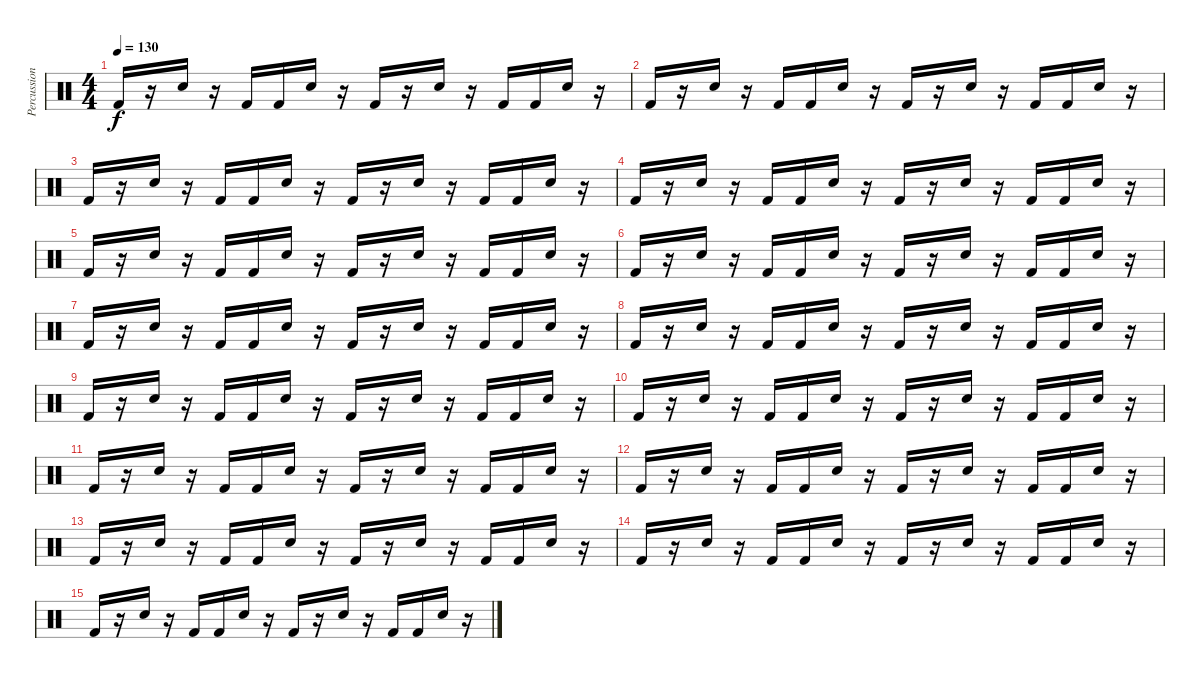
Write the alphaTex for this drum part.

\track ("Percussion" "Percussion") {instrument percussion}
\staff {score}
\articulation defaults
\ts (4 4)
\tempo 130
\clef neutral
\ks c "Kick (hit) 2".16{dy f}
r.16 "Snare (hit) 2".16 r.16 "Kick (hit) 2".16 "Kick (hit) 2".16 "Snare (hit) 2".16 r.16 "Kick (hit) 2".16 r.16 "Snare (hit) 2".16 r.16 "Kick (hit) 2".16 "Kick (hit) 2".16 "Snare (hit) 2".16 r.16 |
"Kick (hit) 2".16 r.16 "Snare (hit) 2".16 r.16 "Kick (hit) 2".16 "Kick (hit) 2".16 "Snare (hit) 2".16 r.16 "Kick (hit) 2".16 r.16 "Snare (hit) 2".16 r.16 "Kick (hit) 2".16 "Kick (hit) 2".16 "Snare (hit) 2".16 r.16 |
"Kick (hit) 2".16 r.16 "Snare (hit) 2".16 r.16 "Kick (hit) 2".16 "Kick (hit) 2".16 "Snare (hit) 2".16 r.16 "Kick (hit) 2".16 r.16 "Snare (hit) 2".16 r.16 "Kick (hit) 2".16 "Kick (hit) 2".16 "Snare (hit) 2".16 r.16 |
"Kick (hit) 2".16 r.16 "Snare (hit) 2".16 r.16 "Kick (hit) 2".16 "Kick (hit) 2".16 "Snare (hit) 2".16 r.16 "Kick (hit) 2".16 r.16 "Snare (hit) 2".16 r.16 "Kick (hit) 2".16 "Kick (hit) 2".16 "Snare (hit) 2".16 r.16 |
"Kick (hit) 2".16 r.16 "Snare (hit) 2".16 r.16 "Kick (hit) 2".16 "Kick (hit) 2".16 "Snare (hit) 2".16 r.16 "Kick (hit) 2".16 r.16 "Snare (hit) 2".16 r.16 "Kick (hit) 2".16 "Kick (hit) 2".16 "Snare (hit) 2".16 r.16 |
"Kick (hit) 2".16 r.16 "Snare (hit) 2".16 r.16 "Kick (hit) 2".16 "Kick (hit) 2".16 "Snare (hit) 2".16 r.16 "Kick (hit) 2".16 r.16 "Snare (hit) 2".16 r.16 "Kick (hit) 2".16 "Kick (hit) 2".16 "Snare (hit) 2".16 r.16 |
"Kick (hit) 2".16 r.16 "Snare (hit) 2".16 r.16 "Kick (hit) 2".16 "Kick (hit) 2".16 "Snare (hit) 2".16 r.16 "Kick (hit) 2".16 r.16 "Snare (hit) 2".16 r.16 "Kick (hit) 2".16 "Kick (hit) 2".16 "Snare (hit) 2".16 r.16 |
"Kick (hit) 2".16 r.16 "Snare (hit) 2".16 r.16 "Kick (hit) 2".16 "Kick (hit) 2".16 "Snare (hit) 2".16 r.16 "Kick (hit) 2".16 r.16 "Snare (hit) 2".16 r.16 "Kick (hit) 2".16 "Kick (hit) 2".16 "Snare (hit) 2".16 r.16 |
"Kick (hit) 2".16 r.16 "Snare (hit) 2".16 r.16 "Kick (hit) 2".16 "Kick (hit) 2".16 "Snare (hit) 2".16 r.16 "Kick (hit) 2".16 r.16 "Snare (hit) 2".16 r.16 "Kick (hit) 2".16 "Kick (hit) 2".16 "Snare (hit) 2".16 r.16 |
"Kick (hit) 2".16 r.16 "Snare (hit) 2".16 r.16 "Kick (hit) 2".16 "Kick (hit) 2".16 "Snare (hit) 2".16 r.16 "Kick (hit) 2".16 r.16 "Snare (hit) 2".16 r.16 "Kick (hit) 2".16 "Kick (hit) 2".16 "Snare (hit) 2".16 r.16 |
"Kick (hit) 2".16 r.16 "Snare (hit) 2".16 r.16 "Kick (hit) 2".16 "Kick (hit) 2".16 "Snare (hit) 2".16 r.16 "Kick (hit) 2".16 r.16 "Snare (hit) 2".16 r.16 "Kick (hit) 2".16 "Kick (hit) 2".16 "Snare (hit) 2".16 r.16 |
"Kick (hit) 2".16 r.16 "Snare (hit) 2".16 r.16 "Kick (hit) 2".16 "Kick (hit) 2".16 "Snare (hit) 2".16 r.16 "Kick (hit) 2".16 r.16 "Snare (hit) 2".16 r.16 "Kick (hit) 2".16 "Kick (hit) 2".16 "Snare (hit) 2".16 r.16 |
"Kick (hit) 2".16 r.16 "Snare (hit) 2".16 r.16 "Kick (hit) 2".16 "Kick (hit) 2".16 "Snare (hit) 2".16 r.16 "Kick (hit) 2".16 r.16 "Snare (hit) 2".16 r.16 "Kick (hit) 2".16 "Kick (hit) 2".16 "Snare (hit) 2".16 r.16 |
"Kick (hit) 2".16 r.16 "Snare (hit) 2".16 r.16 "Kick (hit) 2".16 "Kick (hit) 2".16 "Snare (hit) 2".16 r.16 "Kick (hit) 2".16 r.16 "Snare (hit) 2".16 r.16 "Kick (hit) 2".16 "Kick (hit) 2".16 "Snare (hit) 2".16 r.16 |
"Kick (hit) 2".16 r.16 "Snare (hit) 2".16 r.16 "Kick (hit) 2".16 "Kick (hit) 2".16 "Snare (hit) 2".16 r.16 "Kick (hit) 2".16 r.16 "Snare (hit) 2".16 r.16 "Kick (hit) 2".16 "Kick (hit) 2".16 "Snare (hit) 2".16 r.16
